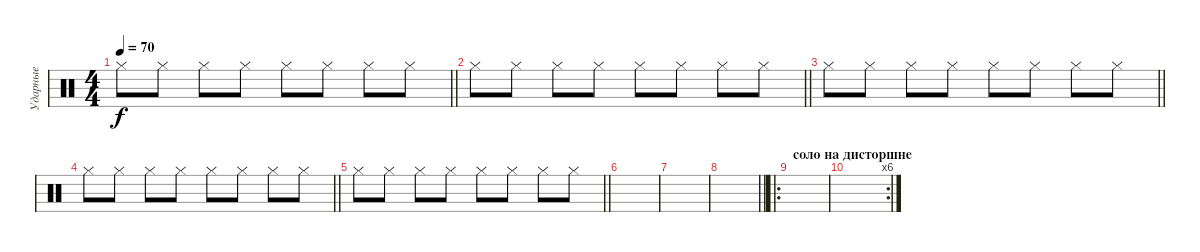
\track ("Ударные" "Ударные") {instrument percussion}
\staff {score}
\articulation defaults
\ts (4 4)
\tempo 70
\clef neutral
\barLineRight lightlight
\ks c "Hi-Hat (closed)".8{dy f} "Hi-Hat (closed)".8 "Hi-Hat (closed)".8 "Hi-Hat (closed)".8 "Hi-Hat (closed)".8 "Hi-Hat (closed)".8 "Hi-Hat (closed)".8 "Hi-Hat (closed)".8
|
\barLineRight lightlight "Hi-Hat (closed)".8 "Hi-Hat (closed)".8 "Hi-Hat (closed)".8 "Hi-Hat (closed)".8 "Hi-Hat (closed)".8 "Hi-Hat (closed)".8 "Hi-Hat (closed)".8 "Hi-Hat (closed)".8
|
\barLineRight lightlight "Hi-Hat (closed)".8 "Hi-Hat (closed)".8 "Hi-Hat (closed)".8 "Hi-Hat (closed)".8 "Hi-Hat (closed)".8 "Hi-Hat (closed)".8 "Hi-Hat (closed)".8 "Hi-Hat (closed)".8
|
\barLineRight lightlight "Hi-Hat (closed)".8 "Hi-Hat (closed)".8 "Hi-Hat (closed)".8 "Hi-Hat (closed)".8 "Hi-Hat (closed)".8 "Hi-Hat (closed)".8 "Hi-Hat (closed)".8 "Hi-Hat (closed)".8
|
\barLineRight lightlight "Hi-Hat (closed)".8 "Hi-Hat (closed)".8 "Hi-Hat (closed)".8 "Hi-Hat (closed)".8 "Hi-Hat (closed)".8 "Hi-Hat (closed)".8 "Hi-Hat (closed)".8 "Hi-Hat (closed)".8
|
|
|
\barLineRight lightlight
|
\ro
\section ("" "соло на дисторшне")
|
\rc 6
